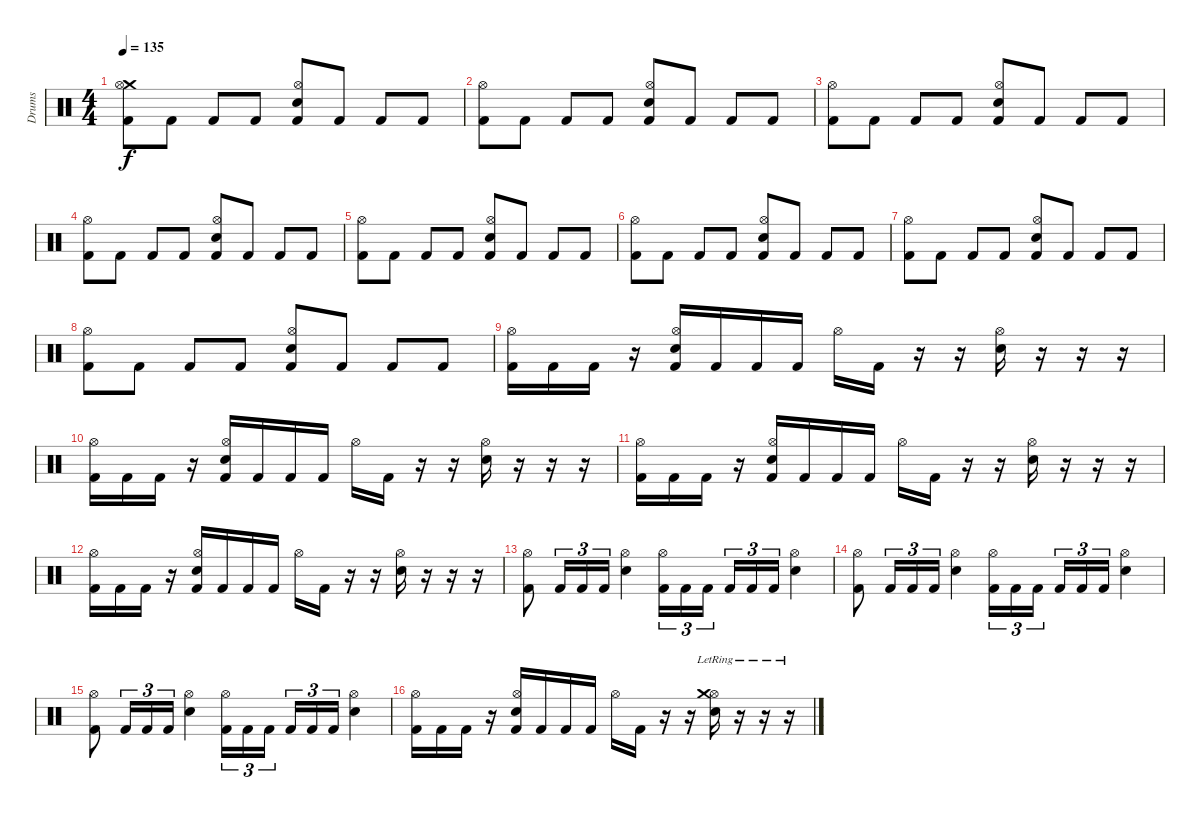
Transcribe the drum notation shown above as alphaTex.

\track ("Drums" "Drums") {instrument percussion}
\staff {score}
\articulation defaults
\ts (4 4)
\tempo 135
\clef neutral
\ks c
("Crash medium (hit)" "Kick (hit) 2" "Hi-Hat (open)").8{dy f} "Kick (hit) 2".8 "Kick (hit) 2".8 "Kick (hit) 2".8 ("Hi-Hat (open)" "Kick (hit) 2" "Snare (hit) 2").8 "Kick (hit) 2".8 "Kick (hit) 2".8 "Kick (hit) 2".8 |
("Kick (hit) 2" "Hi-Hat (open)").8 "Kick (hit) 2".8 "Kick (hit) 2".8 "Kick (hit) 2".8 ("Hi-Hat (open)" "Kick (hit) 2" "Snare (hit) 2").8 "Kick (hit) 2".8 "Kick (hit) 2".8 "Kick (hit) 2".8 |
("Kick (hit) 2" "Hi-Hat (open)").8 "Kick (hit) 2".8 "Kick (hit) 2".8 "Kick (hit) 2".8 ("Hi-Hat (open)" "Kick (hit) 2" "Snare (hit) 2").8 "Kick (hit) 2".8 "Kick (hit) 2".8 "Kick (hit) 2".8 |
("Kick (hit) 2" "Hi-Hat (open)").8 "Kick (hit) 2".8 "Kick (hit) 2".8 "Kick (hit) 2".8 ("Hi-Hat (open)" "Kick (hit) 2" "Snare (hit) 2").8 "Kick (hit) 2".8 "Kick (hit) 2".8 "Kick (hit) 2".8 |
("Kick (hit) 2" "Hi-Hat (open)").8 "Kick (hit) 2".8 "Kick (hit) 2".8 "Kick (hit) 2".8 ("Hi-Hat (open)" "Kick (hit) 2" "Snare (hit) 2").8 "Kick (hit) 2".8 "Kick (hit) 2".8 "Kick (hit) 2".8 |
("Kick (hit) 2" "Hi-Hat (open)").8 "Kick (hit) 2".8 "Kick (hit) 2".8 "Kick (hit) 2".8 ("Hi-Hat (open)" "Kick (hit) 2" "Snare (hit) 2").8 "Kick (hit) 2".8 "Kick (hit) 2".8 "Kick (hit) 2".8 |
("Kick (hit) 2" "Hi-Hat (open)").8 "Kick (hit) 2".8 "Kick (hit) 2".8 "Kick (hit) 2".8 ("Hi-Hat (open)" "Kick (hit) 2" "Snare (hit) 2").8 "Kick (hit) 2".8 "Kick (hit) 2".8 "Kick (hit) 2".8 |
("Kick (hit) 2" "Hi-Hat (open)").8 "Kick (hit) 2".8 "Kick (hit) 2".8 "Kick (hit) 2".8 ("Hi-Hat (open)" "Kick (hit) 2" "Snare (hit) 2").8 "Kick (hit) 2".8 "Kick (hit) 2".8 "Kick (hit) 2".8 |
("Hi-Hat (open)" "Kick (hit) 2").16 "Kick (hit) 2".16 "Kick (hit) 2".16 r.16 ("Hi-Hat (open)" "Kick (hit) 2" "Snare (hit) 2").16 "Kick (hit) 2".16 "Kick (hit) 2".16 "Kick (hit) 2".16 "Hi-Hat (open)".16 "Kick (hit) 2".16 r.16 r.16 ("Hi-Hat (open)" "Snare (hit) 2").16 r.16 r.16 r.16 |
("Hi-Hat (open)" "Kick (hit) 2").16 "Kick (hit) 2".16 "Kick (hit) 2".16 r.16 ("Hi-Hat (open)" "Kick (hit) 2" "Snare (hit) 2").16 "Kick (hit) 2".16 "Kick (hit) 2".16 "Kick (hit) 2".16 "Hi-Hat (open)".16 "Kick (hit) 2".16 r.16 r.16 ("Hi-Hat (open)" "Snare (hit) 2").16 r.16 r.16 r.16 |
("Hi-Hat (open)" "Kick (hit) 2").16 "Kick (hit) 2".16 "Kick (hit) 2".16 r.16 ("Hi-Hat (open)" "Kick (hit) 2" "Snare (hit) 2").16 "Kick (hit) 2".16 "Kick (hit) 2".16 "Kick (hit) 2".16 "Hi-Hat (open)".16 "Kick (hit) 2".16 r.16 r.16 ("Hi-Hat (open)" "Snare (hit) 2").16 r.16 r.16 r.16 |
("Hi-Hat (open)" "Kick (hit) 2").16 "Kick (hit) 2".16 "Kick (hit) 2".16 r.16 ("Hi-Hat (open)" "Kick (hit) 2" "Snare (hit) 2").16 "Kick (hit) 2".16 "Kick (hit) 2".16 "Kick (hit) 2".16 "Hi-Hat (open)".16 "Kick (hit) 2".16 r.16 r.16 ("Hi-Hat (open)" "Snare (hit) 2").16 r.16 r.16 r.16 |
("Hi-Hat (open)" "Kick (hit) 2").8 "Kick (hit) 2".16{tu (3 2)} "Kick (hit) 2".16{tu (3 2)} "Kick (hit) 2".16{tu (3 2)} ("Hi-Hat (open)" "Snare (hit) 2").4 ("Hi-Hat (open)" "Kick (hit) 2").16{tu (3 2)} "Kick (hit) 2".16{tu (3 2)} "Kick (hit) 2".16{tu (3 2)} "Kick (hit) 2".16{tu (3 2)} "Kick (hit) 2".16{tu (3 2)} "Kick (hit) 2".16{tu (3 2)} ("Hi-Hat (open)" "Snare (hit) 2").4 |
("Hi-Hat (open)" "Kick (hit) 2").8 "Kick (hit) 2".16{tu (3 2)} "Kick (hit) 2".16{tu (3 2)} "Kick (hit) 2".16{tu (3 2)} ("Hi-Hat (open)" "Snare (hit) 2").4 ("Hi-Hat (open)" "Kick (hit) 2").16{tu (3 2)} "Kick (hit) 2".16{tu (3 2)} "Kick (hit) 2".16{tu (3 2)} "Kick (hit) 2".16{tu (3 2)} "Kick (hit) 2".16{tu (3 2)} "Kick (hit) 2".16{tu (3 2)} ("Hi-Hat (open)" "Snare (hit) 2").4 |
("Hi-Hat (open)" "Kick (hit) 2").8 "Kick (hit) 2".16{tu (3 2)} "Kick (hit) 2".16{tu (3 2)} "Kick (hit) 2".16{tu (3 2)} ("Hi-Hat (open)" "Snare (hit) 2").4 ("Hi-Hat (open)" "Kick (hit) 2").16{tu (3 2)} "Kick (hit) 2".16{tu (3 2)} "Kick (hit) 2".16{tu (3 2)} "Kick (hit) 2".16{tu (3 2)} "Kick (hit) 2".16{tu (3 2)} "Kick (hit) 2".16{tu (3 2)} ("Hi-Hat (open)" "Snare (hit) 2").4 |
("Hi-Hat (open)" "Kick (hit) 2").16 "Kick (hit) 2".16 "Kick (hit) 2".16 r.16 ("Hi-Hat (open)" "Kick (hit) 2" "Snare (hit) 2").16 "Kick (hit) 2".16 "Kick (hit) 2".16 "Kick (hit) 2".16 "Hi-Hat (open)".16 "Kick (hit) 2".16 r.16 r.16 ("Hi-Hat (open)" "Crash medium (hit)"{lr} "Snare (hit) 2").16 r.16 r.16 r.16
